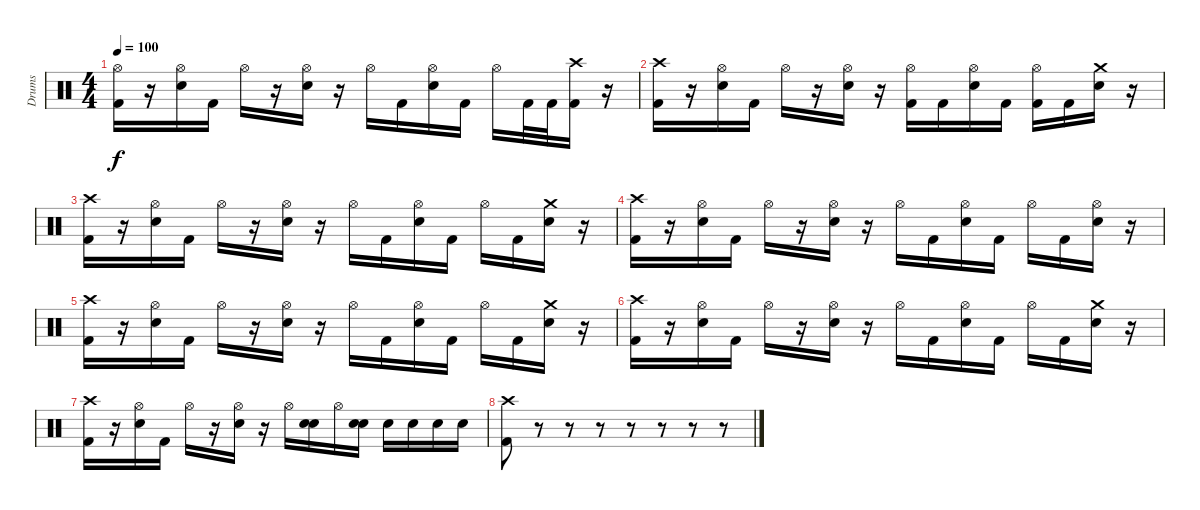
\track ("Drums" "Drums") {instrument percussion}
\staff {score}
\articulation defaults
\ts (4 4)
\tempo 100
\clef neutral
\ks c
("Hi-Hat (open)" "Kick (hit) 2").16{dy f} r.16 ("Hi-Hat (open)" "Electric Snare (hit)").16 "Kick (hit) 2".16 "Hi-Hat (open)".16 r.16 ("Hi-Hat (open)" "Electric Snare (hit)").16 r.16 "Hi-Hat (open)".16 "Kick (hit) 2".16 ("Hi-Hat (open)" "Electric Snare (hit)").16 "Kick (hit) 2".16 "Hi-Hat (open)".16 "Kick (hit) 2".32 "Kick (hit) 2".32 ("Crash high (hit)" "Kick (hit) 2").16 r.16 |
("Crash high (hit)" "Kick (hit) 2").16 r.16 ("Hi-Hat (open)" "Electric Snare (hit)").16 "Kick (hit) 2".16 "Hi-Hat (open)".16 r.16 ("Hi-Hat (open)" "Electric Snare (hit)").16 r.16 ("Hi-Hat (open)" "Kick (hit) 2").16 "Kick (hit) 2".16 ("Hi-Hat (open)" "Electric Snare (hit)").16 "Kick (hit) 2".16 ("Hi-Hat (open)" "Kick (hit) 2").16 "Kick (hit) 2".16 ("Crash medium (hit)" "Electric Snare (hit)").16 r.16 |
("Crash high (hit)" "Kick (hit) 2").16 r.16 ("Hi-Hat (open)" "Electric Snare (hit)").16 "Kick (hit) 2".16 "Hi-Hat (open)".16 r.16 ("Hi-Hat (open)" "Electric Snare (hit)").16 r.16 "Hi-Hat (open)".16 "Kick (hit) 2".16 ("Hi-Hat (open)" "Electric Snare (hit)").16 "Kick (hit) 2".16 "Hi-Hat (open)".16 "Kick (hit) 2".16 ("Crash medium (hit)" "Electric Snare (hit)").16 r.16 |
("Crash high (hit)" "Kick (hit) 2").16 r.16 ("Hi-Hat (open)" "Electric Snare (hit)").16 "Kick (hit) 2".16 "Hi-Hat (open)".16 r.16 ("Hi-Hat (open)" "Electric Snare (hit)").16 r.16 "Hi-Hat (open)".16 "Kick (hit) 2".16 ("Hi-Hat (open)" "Electric Snare (hit)").16 "Kick (hit) 2".16 "Hi-Hat (open)".16 "Kick (hit) 2".16 ("Hi-Hat (open)" "Electric Snare (hit)").16 r.16 |
("Crash high (hit)" "Kick (hit) 2").16 r.16 ("Hi-Hat (open)" "Electric Snare (hit)").16 "Kick (hit) 2".16 "Hi-Hat (open)".16 r.16 ("Hi-Hat (open)" "Electric Snare (hit)").16 r.16 "Hi-Hat (open)".16 "Kick (hit) 2".16 ("Hi-Hat (open)" "Electric Snare (hit)").16 "Kick (hit) 2".16 "Hi-Hat (open)".16 "Kick (hit) 2".16 ("Crash medium (hit)" "Electric Snare (hit)").16 r.16 |
("Crash high (hit)" "Kick (hit) 2").16 r.16 ("Hi-Hat (open)" "Electric Snare (hit)").16 "Kick (hit) 2".16 "Hi-Hat (open)".16 r.16 ("Hi-Hat (open)" "Electric Snare (hit)").16 r.16 "Hi-Hat (open)".16 "Kick (hit) 2".16 ("Hi-Hat (open)" "Electric Snare (hit)").16 "Kick (hit) 2".16 "Hi-Hat (open)".16 "Kick (hit) 2".16 ("Crash medium (hit)" "Electric Snare (hit)").16 r.16 |
("Crash high (hit)" "Kick (hit) 2").16 r.16 ("Hi-Hat (open)" "Electric Snare (hit)").16 "Kick (hit) 2".16 "Hi-Hat (open)".16 r.16 ("Hi-Hat (open)" "Electric Snare (hit)").16 r.16 "Hi-Hat (open)".16 ("Electric Snare (hit)" "Snare (hit) 2").16 "Hi-Hat (open)".16 ("Electric Snare (hit)" "Snare (hit) 2").16 "Electric Snare (hit)".16 "Electric Snare (hit)".16 "Electric Snare (hit)".16 "Electric Snare (hit)".16 |
("Crash high (hit)" "Kick (hit) 2").8 r.8 r.8 r.8 r.8 r.8 r.8 r.8
